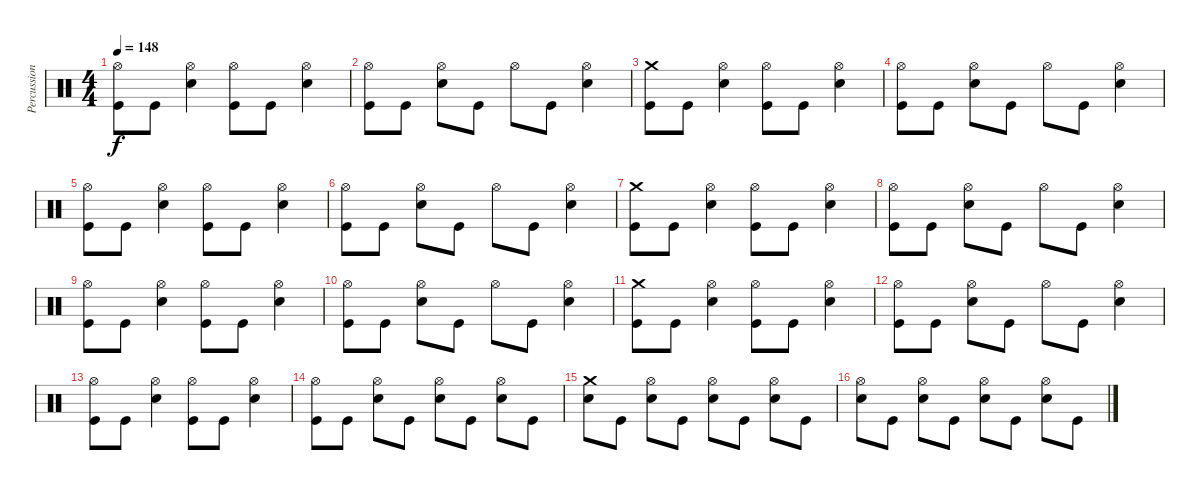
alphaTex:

\track ("Percussion" "Percussion") {instrument percussion}
\staff {score}
\articulation defaults
\ts (4 4)
\tempo 148
\clef neutral
\ks c
("Hi-Hat (open)" "Kick (hit)").8{dy f} "Kick (hit)".8 ("Hi-Hat (open)" "Electric Snare (hit)").4 ("Hi-Hat (open)" "Kick (hit)").8 "Kick (hit)".8 ("Hi-Hat (open)" "Electric Snare (hit)").4 |
("Hi-Hat (open)" "Kick (hit)").8 "Kick (hit)".8 ("Hi-Hat (open)" "Electric Snare (hit)").8 "Kick (hit)".8 "Hi-Hat (open)".8 "Kick (hit)".8 ("Hi-Hat (open)" "Electric Snare (hit)").4 |
("Crash medium (hit)" "Kick (hit)").8 "Kick (hit)".8 ("Hi-Hat (open)" "Electric Snare (hit)").4 ("Hi-Hat (open)" "Kick (hit)").8 "Kick (hit)".8 ("Hi-Hat (open)" "Electric Snare (hit)").4 |
("Hi-Hat (open)" "Kick (hit)").8 "Kick (hit)".8 ("Hi-Hat (open)" "Electric Snare (hit)").8 "Kick (hit)".8 "Hi-Hat (open)".8 "Kick (hit)".8 ("Hi-Hat (open)" "Electric Snare (hit)").4 |
("Hi-Hat (open)" "Kick (hit)").8 "Kick (hit)".8 ("Hi-Hat (open)" "Electric Snare (hit)").4 ("Hi-Hat (open)" "Kick (hit)").8 "Kick (hit)".8 ("Hi-Hat (open)" "Electric Snare (hit)").4 |
("Hi-Hat (open)" "Kick (hit)").8 "Kick (hit)".8 ("Hi-Hat (open)" "Electric Snare (hit)").8 "Kick (hit)".8 "Hi-Hat (open)".8 "Kick (hit)".8 ("Hi-Hat (open)" "Electric Snare (hit)").4 |
("Crash medium (hit)" "Kick (hit)").8 "Kick (hit)".8 ("Hi-Hat (open)" "Electric Snare (hit)").4 ("Hi-Hat (open)" "Kick (hit)").8 "Kick (hit)".8 ("Hi-Hat (open)" "Electric Snare (hit)").4 |
("Hi-Hat (open)" "Kick (hit)").8 "Kick (hit)".8 ("Hi-Hat (open)" "Electric Snare (hit)").8 "Kick (hit)".8 "Hi-Hat (open)".8 "Kick (hit)".8 ("Hi-Hat (open)" "Electric Snare (hit)").4 |
("Hi-Hat (open)" "Kick (hit)").8 "Kick (hit)".8 ("Hi-Hat (open)" "Electric Snare (hit)").4 ("Hi-Hat (open)" "Kick (hit)").8 "Kick (hit)".8 ("Hi-Hat (open)" "Electric Snare (hit)").4 |
("Hi-Hat (open)" "Kick (hit)").8 "Kick (hit)".8 ("Hi-Hat (open)" "Electric Snare (hit)").8 "Kick (hit)".8 "Hi-Hat (open)".8 "Kick (hit)".8 ("Hi-Hat (open)" "Electric Snare (hit)").4 |
("Crash medium (hit)" "Kick (hit)").8 "Kick (hit)".8 ("Hi-Hat (open)" "Electric Snare (hit)").4 ("Hi-Hat (open)" "Kick (hit)").8 "Kick (hit)".8 ("Hi-Hat (open)" "Electric Snare (hit)").4 |
("Hi-Hat (open)" "Kick (hit)").8 "Kick (hit)".8 ("Hi-Hat (open)" "Electric Snare (hit)").8 "Kick (hit)".8 "Hi-Hat (open)".8 "Kick (hit)".8 ("Hi-Hat (open)" "Electric Snare (hit)").4 |
("Hi-Hat (open)" "Kick (hit)").8 "Kick (hit)".8 ("Hi-Hat (open)" "Electric Snare (hit)").4 ("Hi-Hat (open)" "Kick (hit)").8 "Kick (hit)".8 ("Hi-Hat (open)" "Electric Snare (hit)").4 |
("Hi-Hat (open)" "Kick (hit)").8 "Kick (hit)".8 ("Hi-Hat (open)" "Electric Snare (hit)").8 "Kick (hit)".8 ("Hi-Hat (open)" "Electric Snare (hit)").8 "Kick (hit)".8 ("Hi-Hat (open)" "Electric Snare (hit)").8 "Kick (hit)".8 |
("Crash medium (hit)" "Electric Snare (hit)").8 "Kick (hit)".8 ("Hi-Hat (open)" "Electric Snare (hit)").8 "Kick (hit)".8 ("Hi-Hat (open)" "Electric Snare (hit)").8 "Kick (hit)".8 ("Hi-Hat (open)" "Electric Snare (hit)").8 "Kick (hit)".8 |
("Hi-Hat (open)" "Electric Snare (hit)").8 "Kick (hit)".8 ("Hi-Hat (open)" "Electric Snare (hit)").8 "Kick (hit)".8 ("Hi-Hat (open)" "Electric Snare (hit)").8 "Kick (hit)".8 ("Hi-Hat (open)" "Electric Snare (hit)").8 "Kick (hit)".8
